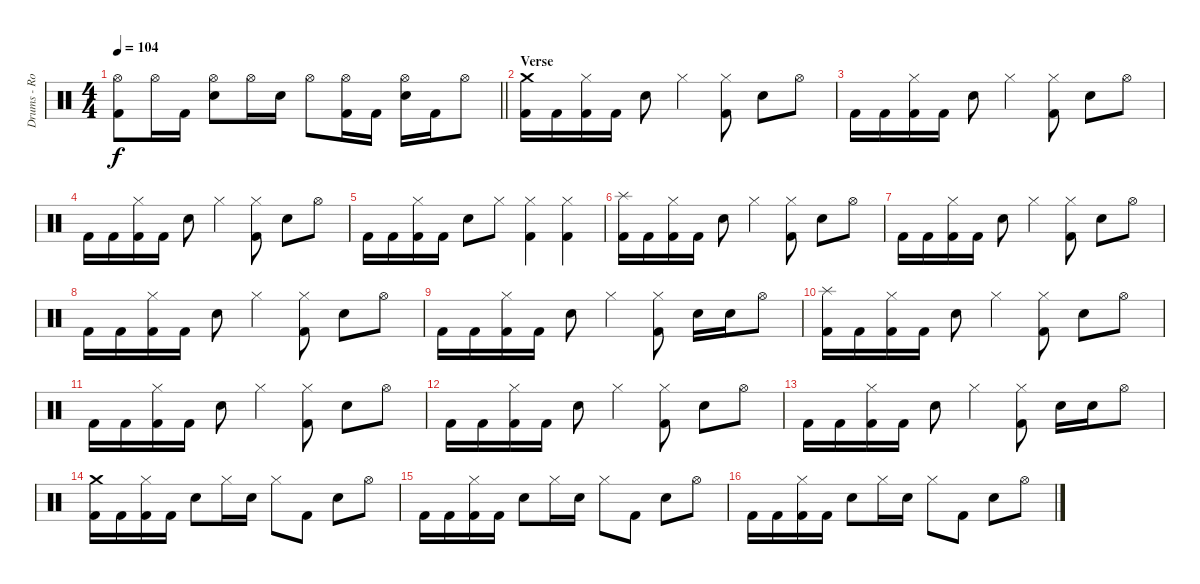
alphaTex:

\track ("Drums - Rob Bourdon" "Drums - Ro") {instrument percussion}
\staff {score}
\articulation defaults
\ts (4 4)
\tempo 104
\clef neutral
\barLineRight lightlight
\ks c
("Hi-Hat (open)" "Kick (hit) 2").8{dy f} "Hi-Hat (open)".16 "Kick (hit) 2".16 ("Hi-Hat (open)" "Snare (hit) 2").8 "Hi-Hat (open)".16 "Snare (hit) 2".16 "Hi-Hat (open)".8 ("Hi-Hat (open)" "Kick (hit) 2").16 "Kick (hit) 2".16 ("Hi-Hat (open)" "Snare (hit) 2").16 "Kick (hit) 2".16 "Hi-Hat (open)".8 |
\section ("" "Verse")
("Crash medium (hit)" "Kick (hit) 2").16 "Kick (hit) 2".16 ("Hi-Hat (closed)" "Kick (hit) 2").16 "Kick (hit) 2".16 "Snare (hit) 2".8 "Hi-Hat (closed)".4 ("Hi-Hat (closed)" "Kick (hit) 2").8 "Snare (hit) 2".8 "Hi-Hat (open)".8 |
"Kick (hit) 2".16 "Kick (hit) 2".16 ("Hi-Hat (closed)" "Kick (hit) 2").16 "Kick (hit) 2".16 "Snare (hit) 2".8 "Hi-Hat (closed)".4 ("Hi-Hat (closed)" "Kick (hit) 2").8 "Snare (hit) 2".8 "Hi-Hat (open)".8 |
"Kick (hit) 2".16 "Kick (hit) 2".16 ("Hi-Hat (closed)" "Kick (hit) 2").16 "Kick (hit) 2".16 "Snare (hit) 2".8 "Hi-Hat (closed)".4 ("Hi-Hat (closed)" "Kick (hit) 2").8 "Snare (hit) 2".8 "Hi-Hat (open)".8 |
"Kick (hit) 2".16 "Kick (hit) 2".16 ("Hi-Hat (closed)" "Kick (hit) 2").16 "Kick (hit) 2".16 "Snare (hit) 2".8 "Hi-Hat (closed)".8 ("Hi-Hat (closed)" "Kick (hit) 2").4 ("Hi-Hat (closed)" "Kick (hit) 2").4 |
("Splash (hit)" "Kick (hit) 2").16 "Kick (hit) 2".16 ("Hi-Hat (closed)" "Kick (hit) 2").16 "Kick (hit) 2".16 "Snare (hit) 2".8 "Hi-Hat (closed)".4 ("Hi-Hat (closed)" "Kick (hit) 2").8 "Snare (hit) 2".8 "Hi-Hat (open)".8 |
"Kick (hit) 2".16 "Kick (hit) 2".16 ("Hi-Hat (closed)" "Kick (hit) 2").16 "Kick (hit) 2".16 "Snare (hit) 2".8 "Hi-Hat (closed)".4 ("Hi-Hat (closed)" "Kick (hit) 2").8 "Snare (hit) 2".8 "Hi-Hat (open)".8 |
"Kick (hit) 2".16 "Kick (hit) 2".16 ("Hi-Hat (closed)" "Kick (hit) 2").16 "Kick (hit) 2".16 "Snare (hit) 2".8 "Hi-Hat (closed)".4 ("Hi-Hat (closed)" "Kick (hit) 2").8 "Snare (hit) 2".8 "Hi-Hat (open)".8 |
"Kick (hit) 2".16 "Kick (hit) 2".16 ("Hi-Hat (closed)" "Kick (hit) 2").16 "Kick (hit) 2".16 "Snare (hit) 2".8 "Hi-Hat (closed)".4 ("Hi-Hat (closed)" "Kick (hit) 2").8 "Snare (hit) 2".16 "Snare (hit) 2".16 "Hi-Hat (open)".8 |
("Splash (hit)" "Kick (hit) 2").16 "Kick (hit) 2".16 ("Hi-Hat (closed)" "Kick (hit) 2").16 "Kick (hit) 2".16 "Snare (hit) 2".8 "Hi-Hat (closed)".4 ("Hi-Hat (closed)" "Kick (hit) 2").8 "Snare (hit) 2".8 "Hi-Hat (open)".8 |
"Kick (hit) 2".16 "Kick (hit) 2".16 ("Hi-Hat (closed)" "Kick (hit) 2").16 "Kick (hit) 2".16 "Snare (hit) 2".8 "Hi-Hat (closed)".4 ("Hi-Hat (closed)" "Kick (hit) 2").8 "Snare (hit) 2".8 "Hi-Hat (open)".8 |
"Kick (hit) 2".16 "Kick (hit) 2".16 ("Hi-Hat (closed)" "Kick (hit) 2").16 "Kick (hit) 2".16 "Snare (hit) 2".8 "Hi-Hat (closed)".4 ("Hi-Hat (closed)" "Kick (hit) 2").8 "Snare (hit) 2".8 "Hi-Hat (open)".8 |
"Kick (hit) 2".16 "Kick (hit) 2".16 ("Hi-Hat (closed)" "Kick (hit) 2").16 "Kick (hit) 2".16 "Snare (hit) 2".8 "Hi-Hat (closed)".4 ("Hi-Hat (closed)" "Kick (hit) 2").8 "Snare (hit) 2".16 "Snare (hit) 2".16 "Hi-Hat (open)".8 |
("Crash medium (hit)" "Kick (hit) 2").16 "Kick (hit) 2".16 ("Hi-Hat (closed)" "Kick (hit) 2").16 "Kick (hit) 2".16 "Snare (hit) 2".8 "Hi-Hat (closed)".16 "Snare (hit) 2".16 "Hi-Hat (closed)".8 "Kick (hit) 2".8 "Snare (hit) 2".8 "Hi-Hat (open)".8 |
"Kick (hit) 2".16 "Kick (hit) 2".16 ("Hi-Hat (closed)" "Kick (hit) 2").16 "Kick (hit) 2".16 "Snare (hit) 2".8 "Hi-Hat (closed)".16 "Snare (hit) 2".16 "Hi-Hat (closed)".8 "Kick (hit) 2".8 "Snare (hit) 2".8 "Hi-Hat (open)".8 |
"Kick (hit) 2".16 "Kick (hit) 2".16 ("Hi-Hat (closed)" "Kick (hit) 2").16 "Kick (hit) 2".16 "Snare (hit) 2".8 "Hi-Hat (closed)".16 "Snare (hit) 2".16 "Hi-Hat (closed)".8 "Kick (hit) 2".8 "Snare (hit) 2".8 "Hi-Hat (open)".8
